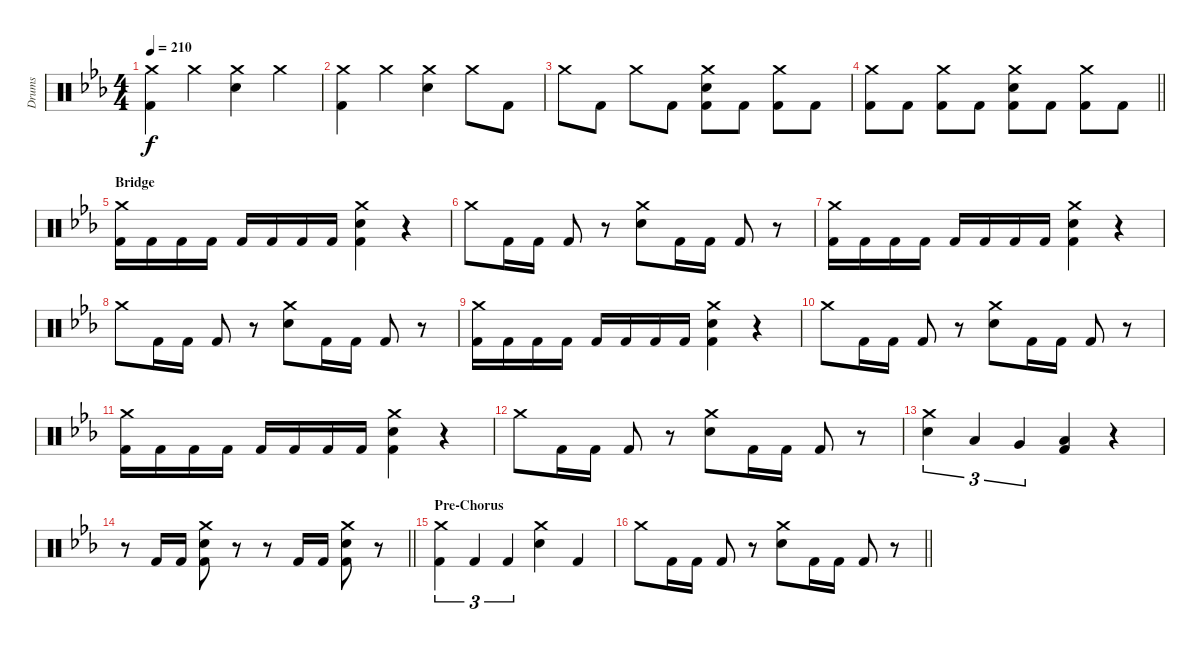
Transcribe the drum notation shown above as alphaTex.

\track ("Drums" "Drums") {instrument percussion}
\staff {score}
\articulation defaults
\ts (4 4)
\tempo 210
\clef neutral
\ks cminor
("Crash medium (hit)" "Kick (hit) 2").4{dy f} "Crash medium (hit)".4 ("Crash medium (hit)" "Electric Snare (hit)").4 "Crash medium (hit)".4 |
("Crash medium (hit)" "Kick (hit) 2").4 "Crash medium (hit)".4 ("Crash medium (hit)" "Electric Snare (hit)").4 "Crash medium (hit)".8 "Kick (hit) 2".8 |
"Crash medium (hit)".8 "Kick (hit) 2".8 "Crash medium (hit)".8 "Kick (hit) 2".8 ("Crash medium (hit)" "Electric Snare (hit)" "Kick (hit) 2").8 "Kick (hit) 2".8 ("Crash medium (hit)" "Kick (hit) 2").8 "Kick (hit) 2".8 |
\barLineRight lightlight
("Crash medium (hit)" "Kick (hit) 2").8 "Kick (hit) 2".8 ("Crash medium (hit)" "Kick (hit) 2").8 "Kick (hit) 2".8 ("Crash medium (hit)" "Electric Snare (hit)" "Kick (hit) 2").8 "Kick (hit) 2".8 ("Crash medium (hit)" "Kick (hit) 2").8 "Kick (hit) 2".8 |
\section ("" "Bridge")
("Crash medium (hit)" "Kick (hit) 2").16 "Kick (hit) 2".16 "Kick (hit) 2".16 "Kick (hit) 2".16 "Kick (hit) 2".16 "Kick (hit) 2".16 "Kick (hit) 2".16 "Kick (hit) 2".16 ("Crash medium (hit)" "Electric Snare (hit)" "Kick (hit) 2").4 r.4 |
"Crash medium (hit)".8 "Kick (hit) 2".16 "Kick (hit) 2".16 "Kick (hit) 2".8 r.8 ("Crash medium (hit)" "Electric Snare (hit)").8 "Kick (hit) 2".16 "Kick (hit) 2".16 "Kick (hit) 2".8 r.8 |
("Crash medium (hit)" "Kick (hit) 2").16 "Kick (hit) 2".16 "Kick (hit) 2".16 "Kick (hit) 2".16 "Kick (hit) 2".16 "Kick (hit) 2".16 "Kick (hit) 2".16 "Kick (hit) 2".16 ("Crash medium (hit)" "Electric Snare (hit)" "Kick (hit) 2").4 r.4 |
"Crash medium (hit)".8 "Kick (hit) 2".16 "Kick (hit) 2".16 "Kick (hit) 2".8 r.8 ("Crash medium (hit)" "Electric Snare (hit)").8 "Kick (hit) 2".16 "Kick (hit) 2".16 "Kick (hit) 2".8 r.8 |
("Crash medium (hit)" "Kick (hit) 2").16 "Kick (hit) 2".16 "Kick (hit) 2".16 "Kick (hit) 2".16 "Kick (hit) 2".16 "Kick (hit) 2".16 "Kick (hit) 2".16 "Kick (hit) 2".16 ("Crash medium (hit)" "Electric Snare (hit)" "Kick (hit) 2").4 r.4 |
"Crash medium (hit)".8 "Kick (hit) 2".16 "Kick (hit) 2".16 "Kick (hit) 2".8 r.8 ("Crash medium (hit)" "Electric Snare (hit)").8 "Kick (hit) 2".16 "Kick (hit) 2".16 "Kick (hit) 2".8 r.8 |
("Crash medium (hit)" "Kick (hit) 2").16 "Kick (hit) 2".16 "Kick (hit) 2".16 "Kick (hit) 2".16 "Kick (hit) 2".16 "Kick (hit) 2".16 "Kick (hit) 2".16 "Kick (hit) 2".16 ("Crash medium (hit)" "Electric Snare (hit)" "Kick (hit) 2").4 r.4 |
"Crash medium (hit)".8 "Kick (hit) 2".16 "Kick (hit) 2".16 "Kick (hit) 2".8 r.8 ("Crash medium (hit)" "Electric Snare (hit)").8 "Kick (hit) 2".16 "Kick (hit) 2".16 "Kick (hit) 2".8 r.8 |
("Crash medium (hit)" "Electric Snare (hit)").4{tu (3 2)} "Low Tom (hit)".4{tu (3 2)} "Very Low Tom (hit)".4{tu (3 2)} ("Low Floor Tom (hit)" "Kick (hit) 2").4 r.4 |
\barLineRight lightlight
r.8 "Kick (hit) 2".16 "Kick (hit) 2".16 ("Crash medium (hit)" "Electric Snare (hit)" "Kick (hit) 2").8 r.8 r.8 "Kick (hit) 2".16 "Kick (hit) 2".16 ("Crash medium (hit)" "Electric Snare (hit)" "Kick (hit) 2").8 r.8 |
\section ("" "Pre-Chorus")
("Crash medium (hit)" "Kick (hit) 2").4{tu (3 2)} "Kick (hit) 2".4{tu (3 2)} "Kick (hit) 2".4{tu (3 2)} ("Crash medium (hit)" "Electric Snare (hit)").4 "Kick (hit) 2".4 |
\barLineRight lightlight "Crash medium (hit)".8 "Kick (hit) 2".16 "Kick (hit) 2".16 "Kick (hit) 2".8
r.8 ("Crash medium (hit)" "Electric Snare (hit)").8 "Kick (hit) 2".16 "Kick (hit) 2".16 "Kick (hit) 2".8 r.8
